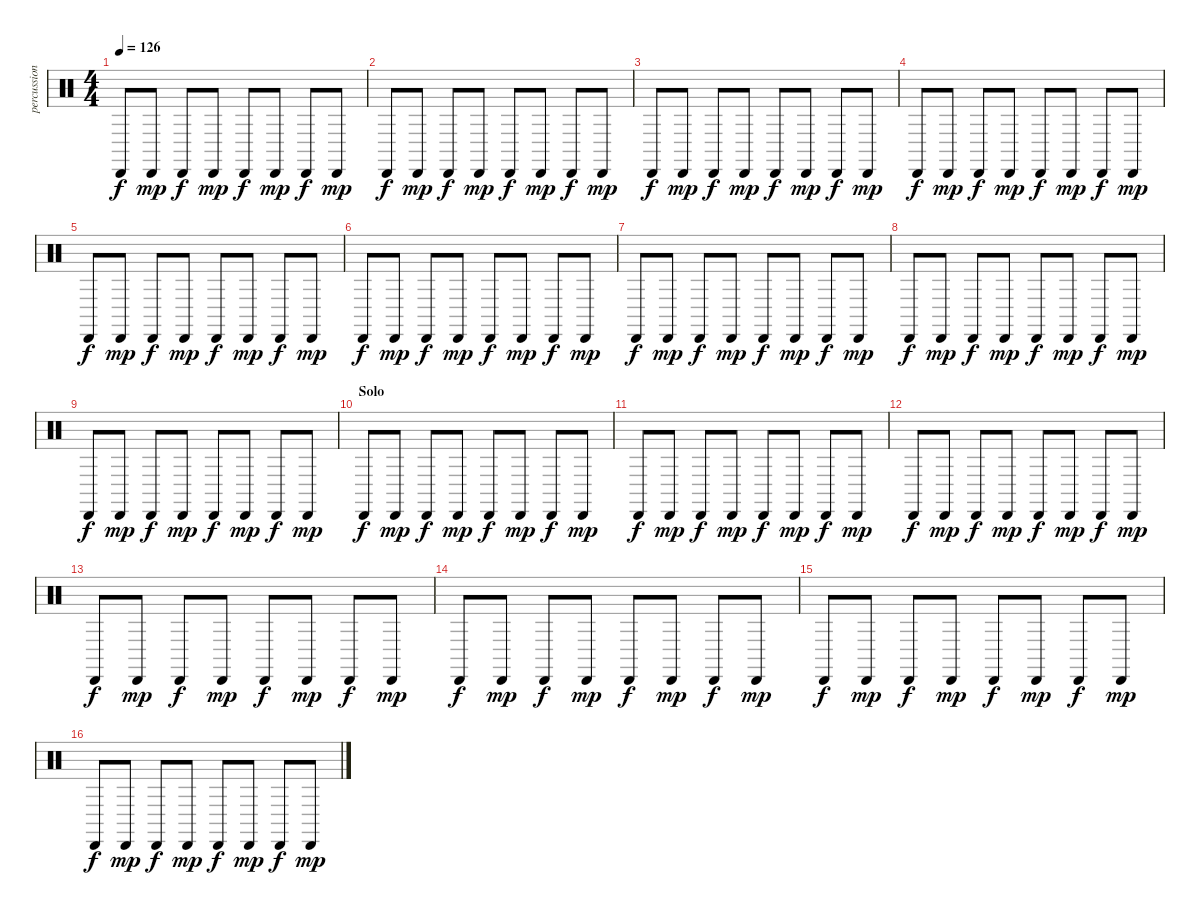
\track ("percussion" "percussion") {instrument percussion}
\staff {score}
\articulation defaults
\ts (4 4)
\tempo 126
\clef neutral
\ks c "Cabasa (hit)".8{dy f} "Cabasa (hit)".8{dy mp} "Cabasa (hit)".8{dy f} "Cabasa (hit)".8{dy mp} "Cabasa (hit)".8{dy f} "Cabasa (hit)".8{dy mp} "Cabasa (hit)".8{dy f} "Cabasa (hit)".8{dy mp}
|
"Cabasa (hit)".8{dy f} "Cabasa (hit)".8{dy mp} "Cabasa (hit)".8{dy f} "Cabasa (hit)".8{dy mp} "Cabasa (hit)".8{dy f} "Cabasa (hit)".8{dy mp} "Cabasa (hit)".8{dy f} "Cabasa (hit)".8{dy mp} |
"Cabasa (hit)".8{dy f} "Cabasa (hit)".8{dy mp} "Cabasa (hit)".8{dy f} "Cabasa (hit)".8{dy mp} "Cabasa (hit)".8{dy f} "Cabasa (hit)".8{dy mp} "Cabasa (hit)".8{dy f} "Cabasa (hit)".8{dy mp} |
"Cabasa (hit)".8{dy f} "Cabasa (hit)".8{dy mp} "Cabasa (hit)".8{dy f} "Cabasa (hit)".8{dy mp} "Cabasa (hit)".8{dy f} "Cabasa (hit)".8{dy mp} "Cabasa (hit)".8{dy f} "Cabasa (hit)".8{dy mp} |
"Cabasa (hit)".8{dy f} "Cabasa (hit)".8{dy mp} "Cabasa (hit)".8{dy f} "Cabasa (hit)".8{dy mp} "Cabasa (hit)".8{dy f} "Cabasa (hit)".8{dy mp} "Cabasa (hit)".8{dy f} "Cabasa (hit)".8{dy mp} |
"Cabasa (hit)".8{dy f} "Cabasa (hit)".8{dy mp} "Cabasa (hit)".8{dy f} "Cabasa (hit)".8{dy mp} "Cabasa (hit)".8{dy f} "Cabasa (hit)".8{dy mp} "Cabasa (hit)".8{dy f} "Cabasa (hit)".8{dy mp} |
"Cabasa (hit)".8{dy f} "Cabasa (hit)".8{dy mp} "Cabasa (hit)".8{dy f} "Cabasa (hit)".8{dy mp} "Cabasa (hit)".8{dy f} "Cabasa (hit)".8{dy mp} "Cabasa (hit)".8{dy f} "Cabasa (hit)".8{dy mp} |
"Cabasa (hit)".8{dy f} "Cabasa (hit)".8{dy mp} "Cabasa (hit)".8{dy f} "Cabasa (hit)".8{dy mp} "Cabasa (hit)".8{dy f} "Cabasa (hit)".8{dy mp} "Cabasa (hit)".8{dy f} "Cabasa (hit)".8{dy mp} |
"Cabasa (hit)".8{dy f} "Cabasa (hit)".8{dy mp} "Cabasa (hit)".8{dy f} "Cabasa (hit)".8{dy mp} "Cabasa (hit)".8{dy f} "Cabasa (hit)".8{dy mp} "Cabasa (hit)".8{dy f} "Cabasa (hit)".8{dy mp} |
\section ("" "Solo")
"Cabasa (hit)".8{dy f} "Cabasa (hit)".8{dy mp} "Cabasa (hit)".8{dy f} "Cabasa (hit)".8{dy mp} "Cabasa (hit)".8{dy f} "Cabasa (hit)".8{dy mp} "Cabasa (hit)".8{dy f} "Cabasa (hit)".8{dy mp} |
"Cabasa (hit)".8{dy f} "Cabasa (hit)".8{dy mp} "Cabasa (hit)".8{dy f} "Cabasa (hit)".8{dy mp} "Cabasa (hit)".8{dy f} "Cabasa (hit)".8{dy mp} "Cabasa (hit)".8{dy f} "Cabasa (hit)".8{dy mp} |
"Cabasa (hit)".8{dy f} "Cabasa (hit)".8{dy mp} "Cabasa (hit)".8{dy f} "Cabasa (hit)".8{dy mp} "Cabasa (hit)".8{dy f} "Cabasa (hit)".8{dy mp} "Cabasa (hit)".8{dy f} "Cabasa (hit)".8{dy mp} |
"Cabasa (hit)".8{dy f} "Cabasa (hit)".8{dy mp} "Cabasa (hit)".8{dy f} "Cabasa (hit)".8{dy mp} "Cabasa (hit)".8{dy f} "Cabasa (hit)".8{dy mp} "Cabasa (hit)".8{dy f} "Cabasa (hit)".8{dy mp} |
"Cabasa (hit)".8{dy f} "Cabasa (hit)".8{dy mp} "Cabasa (hit)".8{dy f} "Cabasa (hit)".8{dy mp} "Cabasa (hit)".8{dy f} "Cabasa (hit)".8{dy mp} "Cabasa (hit)".8{dy f} "Cabasa (hit)".8{dy mp} |
"Cabasa (hit)".8{dy f} "Cabasa (hit)".8{dy mp} "Cabasa (hit)".8{dy f} "Cabasa (hit)".8{dy mp} "Cabasa (hit)".8{dy f} "Cabasa (hit)".8{dy mp} "Cabasa (hit)".8{dy f} "Cabasa (hit)".8{dy mp} |
"Cabasa (hit)".8{dy f} "Cabasa (hit)".8{dy mp} "Cabasa (hit)".8{dy f} "Cabasa (hit)".8{dy mp} "Cabasa (hit)".8{dy f} "Cabasa (hit)".8{dy mp} "Cabasa (hit)".8{dy f} "Cabasa (hit)".8{dy mp}
